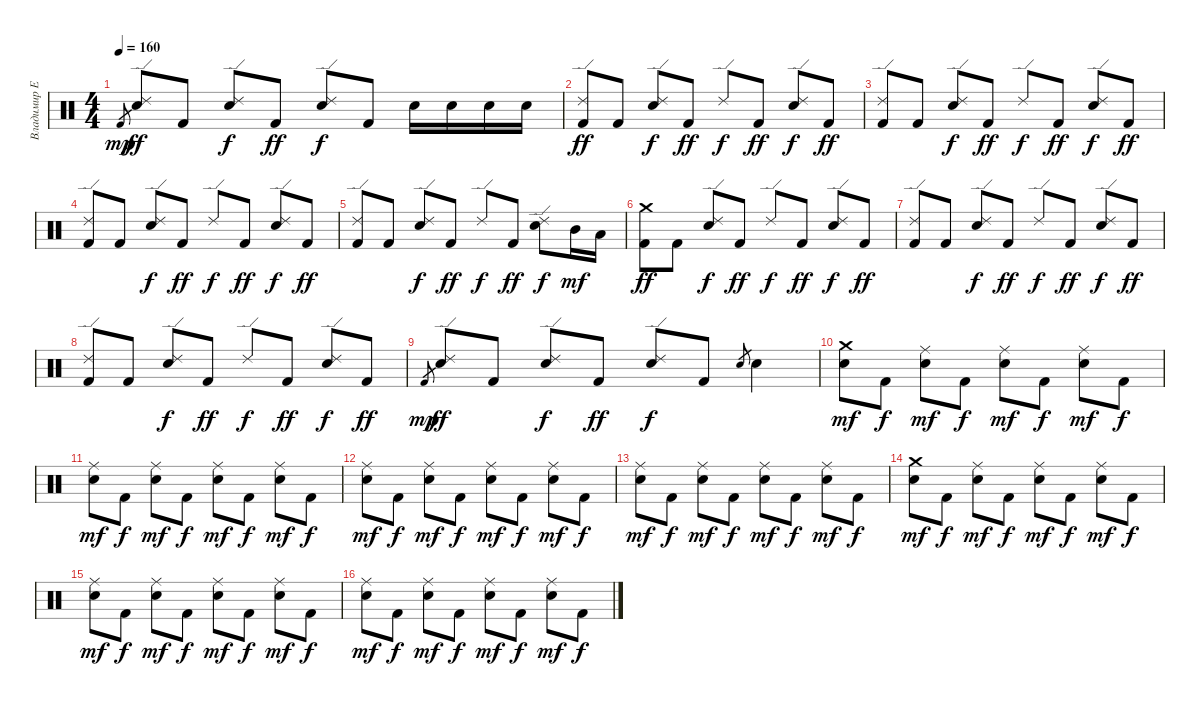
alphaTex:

\track ("Владимир Ермаков" "Владимир Е") {instrument percussion}
\staff {score}
\articulation defaults
\ts (4 4)
\tempo 160
\clef neutral
\ks c "Kick (hit) 2".8{gr dy mp}
("Ride (edge) 2" "Electric Snare (hit)").8{dy ff} "Kick (hit) 2".8 ("Ride (edge) 2" "Electric Snare (hit)").8{dy f} "Kick (hit) 2".8{dy ff} ("Ride (edge) 2" "Electric Snare (hit)").8{dy f} "Kick (hit) 2".8 "Electric Snare (hit)".16 "Electric Snare (hit)".16 "Electric Snare (hit)".16 "Electric Snare (hit)".16 |
("Ride (edge) 2" "Kick (hit) 2").8{dy ff} "Kick (hit) 2".8 ("Ride (edge) 2" "Electric Snare (hit)").8{dy f} "Kick (hit) 2".8{dy ff} "Ride (edge) 2".8{dy f} "Kick (hit) 2".8{dy ff} ("Ride (edge) 2" "Electric Snare (hit)").8{dy f} "Kick (hit) 2".8{dy ff} |
("Ride (edge) 2" "Kick (hit) 2").8 "Kick (hit) 2".8 ("Ride (edge) 2" "Electric Snare (hit)").8{dy f} "Kick (hit) 2".8{dy ff} "Ride (edge) 2".8{dy f} "Kick (hit) 2".8{dy ff} ("Ride (edge) 2" "Electric Snare (hit)").8{dy f} "Kick (hit) 2".8{dy ff} |
("Ride (edge) 2" "Kick (hit) 2").8 "Kick (hit) 2".8 ("Ride (edge) 2" "Electric Snare (hit)").8{dy f} "Kick (hit) 2".8{dy ff} "Ride (edge) 2".8{dy f} "Kick (hit) 2".8{dy ff} ("Ride (edge) 2" "Electric Snare (hit)").8{dy f} "Kick (hit) 2".8{dy ff} |
("Ride (edge) 2" "Kick (hit) 2").8 "Kick (hit) 2".8 ("Ride (edge) 2" "Electric Snare (hit)").8{dy f} "Kick (hit) 2".8{dy ff} "Ride (edge) 2".8{dy f} "Kick (hit) 2".8{dy ff} ("Ride (edge) 2" "Electric Snare (hit)").8{dy f} "Mid Tom (hit)".16{dy mf} "Low Tom (hit)".16 |
("Crash medium (hit)" "Kick (hit) 2").8{dy ff} "Kick (hit) 2".8 ("Ride (edge) 2" "Electric Snare (hit)").8{dy f} "Kick (hit) 2".8{dy ff} "Ride (edge) 2".8{dy f} "Kick (hit) 2".8{dy ff} ("Ride (edge) 2" "Electric Snare (hit)").8{dy f} "Kick (hit) 2".8{dy ff} |
("Ride (edge) 2" "Kick (hit) 2").8 "Kick (hit) 2".8 ("Ride (edge) 2" "Electric Snare (hit)").8{dy f} "Kick (hit) 2".8{dy ff} "Ride (edge) 2".8{dy f} "Kick (hit) 2".8{dy ff} ("Ride (edge) 2" "Electric Snare (hit)").8{dy f} "Kick (hit) 2".8{dy ff} |
("Ride (edge) 2" "Kick (hit) 2").8 "Kick (hit) 2".8 ("Ride (edge) 2" "Electric Snare (hit)").8{dy f} "Kick (hit) 2".8{dy ff} "Ride (edge) 2".8{dy f} "Kick (hit) 2".8{dy ff} ("Ride (edge) 2" "Electric Snare (hit)").8{dy f} "Kick (hit) 2".8{dy ff} |
"Kick (hit) 2".8{gr dy mp} ("Ride (edge) 2" "Electric Snare (hit)").8{dy ff} "Kick (hit) 2".8 ("Ride (edge) 2" "Electric Snare (hit)").8{dy f} "Kick (hit) 2".8{dy ff} ("Ride (edge) 2" "Electric Snare (hit)").8{dy f} "Kick (hit) 2".8 "Electric Snare (hit)".8{gr} "Electric Snare (hit)".4 |
("Crash medium (hit)" "Electric Snare (hit)").8{dy mf} "Kick (hit) 2".8{dy f} ("Ride (middle)" "Electric Snare (hit)").8{dy mf} "Kick (hit) 2".8{dy f} ("Ride (middle)" "Electric Snare (hit)").8{dy mf} "Kick (hit) 2".8{dy f} ("Ride (middle)" "Electric Snare (hit)").8{dy mf} "Kick (hit) 2".8{dy f} |
("Ride (middle)" "Electric Snare (hit)").8{dy mf} "Kick (hit) 2".8{dy f} ("Ride (middle)" "Electric Snare (hit)").8{dy mf} "Kick (hit) 2".8{dy f} ("Ride (middle)" "Electric Snare (hit)").8{dy mf} "Kick (hit) 2".8{dy f} ("Ride (middle)" "Electric Snare (hit)").8{dy mf} "Kick (hit) 2".8{dy f} |
("Ride (middle)" "Electric Snare (hit)").8{dy mf} "Kick (hit) 2".8{dy f} ("Ride (middle)" "Electric Snare (hit)").8{dy mf} "Kick (hit) 2".8{dy f} ("Ride (middle)" "Electric Snare (hit)").8{dy mf} "Kick (hit) 2".8{dy f} ("Ride (middle)" "Electric Snare (hit)").8{dy mf} "Kick (hit) 2".8{dy f} |
("Ride (middle)" "Electric Snare (hit)").8{dy mf} "Kick (hit) 2".8{dy f} ("Ride (middle)" "Electric Snare (hit)").8{dy mf} "Kick (hit) 2".8{dy f} ("Ride (middle)" "Electric Snare (hit)").8{dy mf} "Kick (hit) 2".8{dy f} ("Ride (middle)" "Electric Snare (hit)").8{dy mf} "Kick (hit) 2".8{dy f} |
("Crash medium (hit)" "Electric Snare (hit)").8{dy mf} "Kick (hit) 2".8{dy f} ("Ride (middle)" "Electric Snare (hit)").8{dy mf} "Kick (hit) 2".8{dy f} ("Ride (middle)" "Electric Snare (hit)").8{dy mf} "Kick (hit) 2".8{dy f} ("Ride (middle)" "Electric Snare (hit)").8{dy mf} "Kick (hit) 2".8{dy f} |
("Ride (middle)" "Electric Snare (hit)").8{dy mf} "Kick (hit) 2".8{dy f} ("Ride (middle)" "Electric Snare (hit)").8{dy mf} "Kick (hit) 2".8{dy f} ("Ride (middle)" "Electric Snare (hit)").8{dy mf} "Kick (hit) 2".8{dy f} ("Ride (middle)" "Electric Snare (hit)").8{dy mf} "Kick (hit) 2".8{dy f} |
("Ride (middle)" "Electric Snare (hit)").8{dy mf} "Kick (hit) 2".8{dy f} ("Ride (middle)" "Electric Snare (hit)").8{dy mf} "Kick (hit) 2".8{dy f} ("Ride (middle)" "Electric Snare (hit)").8{dy mf} "Kick (hit) 2".8{dy f} ("Ride (middle)" "Electric Snare (hit)").8{dy mf} "Kick (hit) 2".8{dy f}
